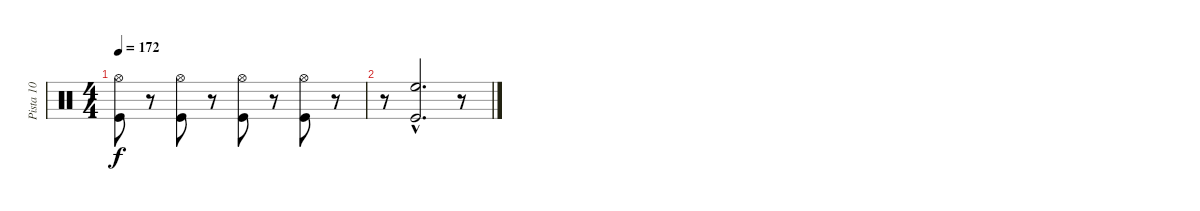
\track ("Pista 10" "Pista 10") {instrument percussion}
\staff {score}
\articulation defaults
\ts (4 4)
\tempo 172
\clef neutral
\ks c
("Hi-Hat (open)" "Kick (hit)").8{dy f} r.8 ("Hi-Hat (open)" "Kick (hit)").8 r.8 ("Hi-Hat (open)" "Kick (hit)").8 r.8 ("Hi-Hat (open)" "Kick (hit)").8 r.8 |
r.8 ("Kick (hit)"{hac} "High Floor Tom (hit)"{hac}).2{d} r.8
